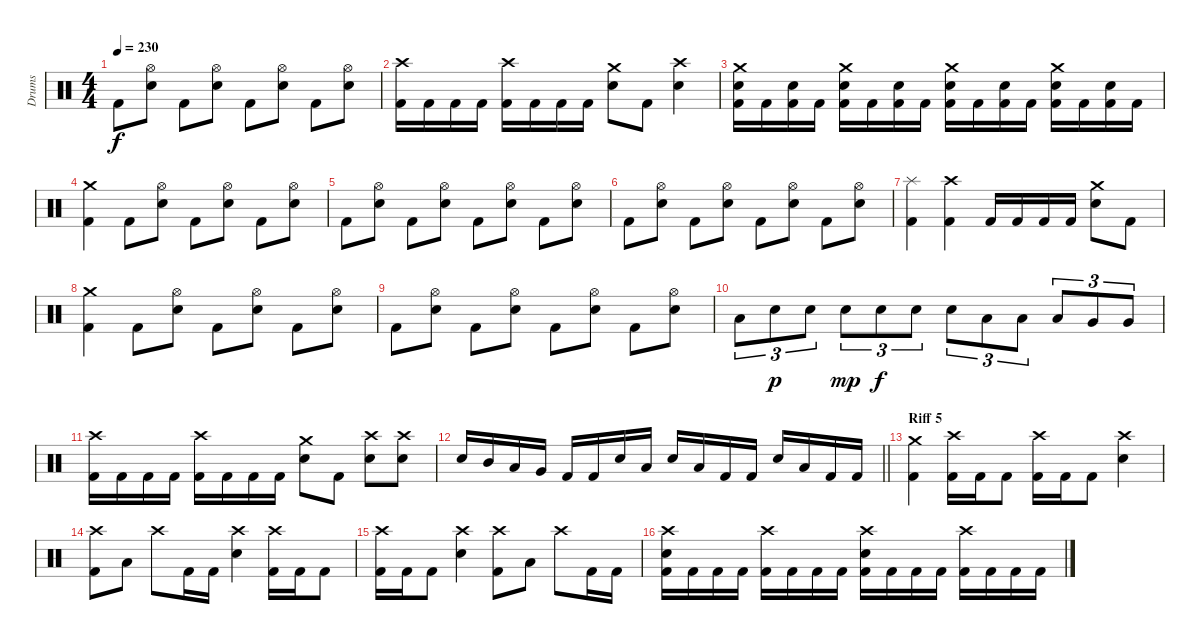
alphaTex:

\track ("Drums" "Drums") {instrument percussion}
\staff {score}
\articulation defaults
\ts (4 4)
\tempo 230
\clef neutral
\ks c "Kick (hit) 2".8{dy f}
("Hi-Hat (open)" "Electric Snare (hit)").8 "Kick (hit) 2".8 ("Hi-Hat (open)" "Electric Snare (hit)").8 "Kick (hit) 2".8 ("Hi-Hat (open)" "Electric Snare (hit)").8 "Kick (hit) 2".8 ("Hi-Hat (open)" "Electric Snare (hit)").8 |
("Crash high (hit)" "Kick (hit) 2").16 "Kick (hit) 2".16 "Kick (hit) 2".16 "Kick (hit) 2".16 ("Crash high (hit)" "Kick (hit) 2").16 "Kick (hit) 2".16 "Kick (hit) 2".16 "Kick (hit) 2".16 ("Electric Snare (hit)" "Crash medium (hit)").8 "Kick (hit) 2".8 ("Electric Snare (hit)" "Crash high (hit)").4 |
("Kick (hit) 2" "Electric Snare (hit)" "Crash medium (hit)").16 "Kick (hit) 2".16 ("Kick (hit) 2" "Electric Snare (hit)").16 "Kick (hit) 2".16 ("Kick (hit) 2" "Electric Snare (hit)" "Crash medium (hit)").16 "Kick (hit) 2".16 ("Kick (hit) 2" "Electric Snare (hit)").16 "Kick (hit) 2".16 ("Kick (hit) 2" "Electric Snare (hit)" "Crash medium (hit)").16 "Kick (hit) 2".16 ("Kick (hit) 2" "Electric Snare (hit)").16 "Kick (hit) 2".16 ("Kick (hit) 2" "Electric Snare (hit)" "Crash medium (hit)").16 "Kick (hit) 2".16 ("Kick (hit) 2" "Electric Snare (hit)").16 "Kick (hit) 2".16 |
("Kick (hit) 2" "Crash medium (hit)").4 "Kick (hit) 2".8 ("Hi-Hat (open)" "Electric Snare (hit)").8 "Kick (hit) 2".8 ("Hi-Hat (open)" "Electric Snare (hit)").8 "Kick (hit) 2".8 ("Hi-Hat (open)" "Electric Snare (hit)").8 |
"Kick (hit) 2".8 ("Hi-Hat (open)" "Electric Snare (hit)").8 "Kick (hit) 2".8 ("Hi-Hat (open)" "Electric Snare (hit)").8 "Kick (hit) 2".8 ("Hi-Hat (open)" "Electric Snare (hit)").8 "Kick (hit) 2".8 ("Hi-Hat (open)" "Electric Snare (hit)").8 |
"Kick (hit) 2".8 ("Hi-Hat (open)" "Electric Snare (hit)").8 "Kick (hit) 2".8 ("Hi-Hat (open)" "Electric Snare (hit)").8 "Kick (hit) 2".8 ("Hi-Hat (open)" "Electric Snare (hit)").8 "Kick (hit) 2".8 ("Hi-Hat (open)" "Electric Snare (hit)").8 |
("Kick (hit) 2" "Splash (hit)").4 ("Kick (hit) 2" "Crash high (hit)").4 "Kick (hit) 2".16 "Kick (hit) 2".16 "Kick (hit) 2".16 "Kick (hit) 2".16 ("Crash medium (hit)" "Electric Snare (hit)").8 "Kick (hit) 2".8 |
("Kick (hit) 2" "Crash medium (hit)").4 "Kick (hit) 2".8 ("Hi-Hat (open)" "Electric Snare (hit)").8 "Kick (hit) 2".8 ("Hi-Hat (open)" "Electric Snare (hit)").8 "Kick (hit) 2".8 ("Hi-Hat (open)" "Electric Snare (hit)").8 |
"Kick (hit) 2".8 ("Hi-Hat (open)" "Electric Snare (hit)").8 "Kick (hit) 2".8 ("Hi-Hat (open)" "Electric Snare (hit)").8 "Kick (hit) 2".8 ("Hi-Hat (open)" "Electric Snare (hit)").8 "Kick (hit) 2".8 ("Hi-Hat (open)" "Electric Snare (hit)").8 |
"Low Tom (hit)".8{tu (3 2)} "Electric Snare (hit)".8{tu (3 2) dy p} "Electric Snare (hit)".8{tu (3 2)} "Electric Snare (hit)".8{tu (3 2) dy mp} "Electric Snare (hit)".8{tu (3 2) dy f} "Electric Snare (hit)".8{tu (3 2)} "Electric Snare (hit)".8{tu (3 2)} "Low Tom (hit)".8{tu (3 2)} "Low Tom (hit)".8{tu (3 2)} "Low Tom (hit)".8{tu (3 2)} "Very Low Tom (hit)".8{tu (3 2)} "Very Low Tom (hit)".8{tu (3 2)} |
("Crash high (hit)" "Kick (hit) 2").16 "Kick (hit) 2".16 "Kick (hit) 2".16 "Kick (hit) 2".16 ("Crash high (hit)" "Kick (hit) 2").16 "Kick (hit) 2".16 "Kick (hit) 2".16 "Kick (hit) 2".16 ("Electric Snare (hit)" "Crash medium (hit)").8 "Kick (hit) 2".8 ("Electric Snare (hit)" "Crash high (hit)").8 ("Electric Snare (hit)" "Crash high (hit)").8 |
\barLineRight lightlight "Electric Snare (hit)".16 "Mid Tom (hit)".16 "Low Tom (hit)".16 "Very Low Tom (hit)".16 "Kick (hit) 2".16 "Kick (hit) 2".16 "Electric Snare (hit)".16 "Low Tom (hit)".16 "Electric Snare (hit)".16 "Low Tom (hit)".16 "Kick (hit) 2".16 "Kick (hit) 2".16 "Electric Snare (hit)".16 "Low Tom (hit)".16 "Kick (hit) 2".16 "Kick (hit) 2".16
|
\section ("" "Riff 5")
("Crash medium (hit)" "Kick (hit) 2").4 ("Crash high (hit)" "Kick (hit) 2").16 "Kick (hit) 2".16 "Kick (hit) 2".8 ("Crash high (hit)" "Kick (hit) 2").16 "Kick (hit) 2".16 "Kick (hit) 2".8 ("Crash high (hit)" "Electric Snare (hit)").4 |
("Crash high (hit)" "Kick (hit) 2").8 "Low Tom (hit)".8 "Crash high (hit)".8 "Kick (hit) 2".16 "Kick (hit) 2".16 ("Crash high (hit)" "Electric Snare (hit)").4 ("Crash high (hit)" "Kick (hit) 2").16 "Kick (hit) 2".16 "Kick (hit) 2".8 |
("Crash high (hit)" "Kick (hit) 2").16 "Kick (hit) 2".16 "Kick (hit) 2".8 ("Crash high (hit)" "Electric Snare (hit)").4 ("Crash high (hit)" "Kick (hit) 2").8 "Low Tom (hit)".8 "Crash high (hit)".8 "Kick (hit) 2".16 "Kick (hit) 2".16 |
("Electric Snare (hit)" "Crash high (hit)" "Kick (hit) 2").16 "Kick (hit) 2".16 "Kick (hit) 2".16 "Kick (hit) 2".16 ("Crash high (hit)" "Kick (hit) 2").16 "Kick (hit) 2".16 "Kick (hit) 2".16 "Kick (hit) 2".16 ("Electric Snare (hit)" "Crash high (hit)" "Kick (hit) 2").16 "Kick (hit) 2".16 "Kick (hit) 2".16 "Kick (hit) 2".16 ("Crash high (hit)" "Kick (hit) 2").16 "Kick (hit) 2".16 "Kick (hit) 2".16 "Kick (hit) 2".16
